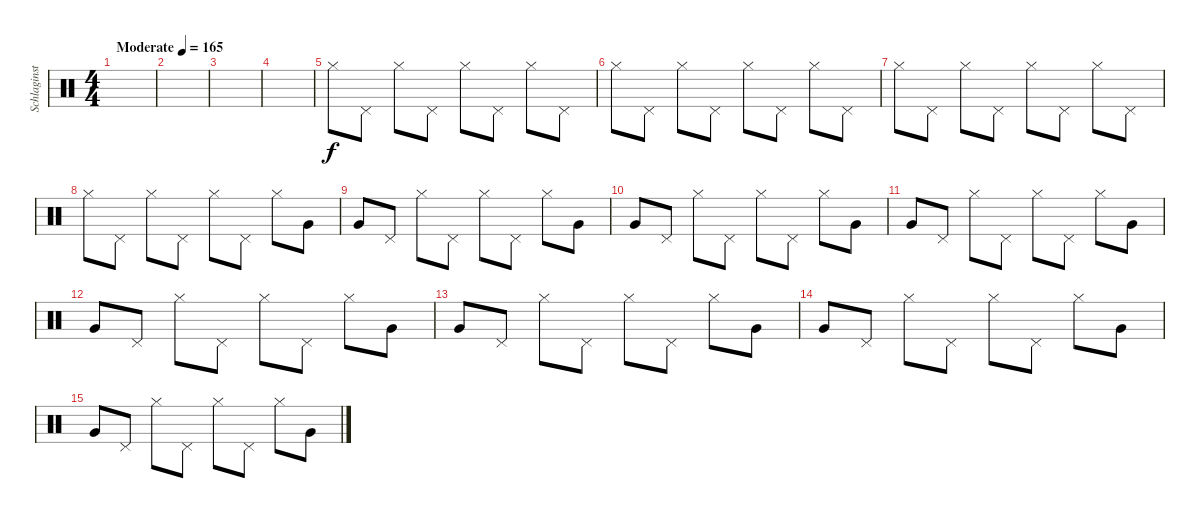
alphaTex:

\track ("Schlaginstrumente - Auswahl" "Schlaginst") {instrument percussion}
\staff {score}
\articulation defaults
\ts (4 4)
\tempo (165 "Moderate")
\clef neutral
\ks c
|
|
|
|
"Hi-Hat (closed)".8 "Pedal Hi-Hat (hit)".8 "Hi-Hat (closed)".8 "Pedal Hi-Hat (hit)".8 "Hi-Hat (closed)".8 "Pedal Hi-Hat (hit)".8 "Hi-Hat (closed)".8 "Pedal Hi-Hat (hit)".8 |
"Hi-Hat (closed)".8 "Pedal Hi-Hat (hit)".8 "Hi-Hat (closed)".8 "Pedal Hi-Hat (hit)".8 "Hi-Hat (closed)".8 "Pedal Hi-Hat (hit)".8 "Hi-Hat (closed)".8 "Pedal Hi-Hat (hit)".8 |
"Hi-Hat (closed)".8 "Pedal Hi-Hat (hit)".8 "Hi-Hat (closed)".8 "Pedal Hi-Hat (hit)".8 "Hi-Hat (closed)".8 "Pedal Hi-Hat (hit)".8 "Hi-Hat (closed)".8 "Pedal Hi-Hat (hit)".8 |
"Hi-Hat (closed)".8 "Pedal Hi-Hat (hit)".8 "Hi-Hat (closed)".8 "Pedal Hi-Hat (hit)".8 "Hi-Hat (closed)".8 "Pedal Hi-Hat (hit)".8 "Hi-Hat (closed)".8 "Very Low Tom (hit)".8 |
"Very Low Tom (hit)".8 "Pedal Hi-Hat (hit)".8 "Hi-Hat (closed)".8 "Pedal Hi-Hat (hit)".8 "Hi-Hat (closed)".8 "Pedal Hi-Hat (hit)".8 "Hi-Hat (closed)".8 "Very Low Tom (hit)".8 |
"Very Low Tom (hit)".8 "Pedal Hi-Hat (hit)".8 "Hi-Hat (closed)".8 "Pedal Hi-Hat (hit)".8 "Hi-Hat (closed)".8 "Pedal Hi-Hat (hit)".8 "Hi-Hat (closed)".8 "Very Low Tom (hit)".8 |
"Very Low Tom (hit)".8 "Pedal Hi-Hat (hit)".8 "Hi-Hat (closed)".8 "Pedal Hi-Hat (hit)".8 "Hi-Hat (closed)".8 "Pedal Hi-Hat (hit)".8 "Hi-Hat (closed)".8 "Very Low Tom (hit)".8 |
"Very Low Tom (hit)".8 "Pedal Hi-Hat (hit)".8 "Hi-Hat (closed)".8 "Pedal Hi-Hat (hit)".8 "Hi-Hat (closed)".8 "Pedal Hi-Hat (hit)".8 "Hi-Hat (closed)".8 "Very Low Tom (hit)".8 |
"Very Low Tom (hit)".8 "Pedal Hi-Hat (hit)".8 "Hi-Hat (closed)".8 "Pedal Hi-Hat (hit)".8 "Hi-Hat (closed)".8 "Pedal Hi-Hat (hit)".8 "Hi-Hat (closed)".8 "Very Low Tom (hit)".8 |
"Very Low Tom (hit)".8 "Pedal Hi-Hat (hit)".8 "Hi-Hat (closed)".8 "Pedal Hi-Hat (hit)".8 "Hi-Hat (closed)".8 "Pedal Hi-Hat (hit)".8 "Hi-Hat (closed)".8 "Very Low Tom (hit)".8 |
"Very Low Tom (hit)".8 "Pedal Hi-Hat (hit)".8 "Hi-Hat (closed)".8 "Pedal Hi-Hat (hit)".8 "Hi-Hat (closed)".8 "Pedal Hi-Hat (hit)".8 "Hi-Hat (closed)".8 "Very Low Tom (hit)".8
